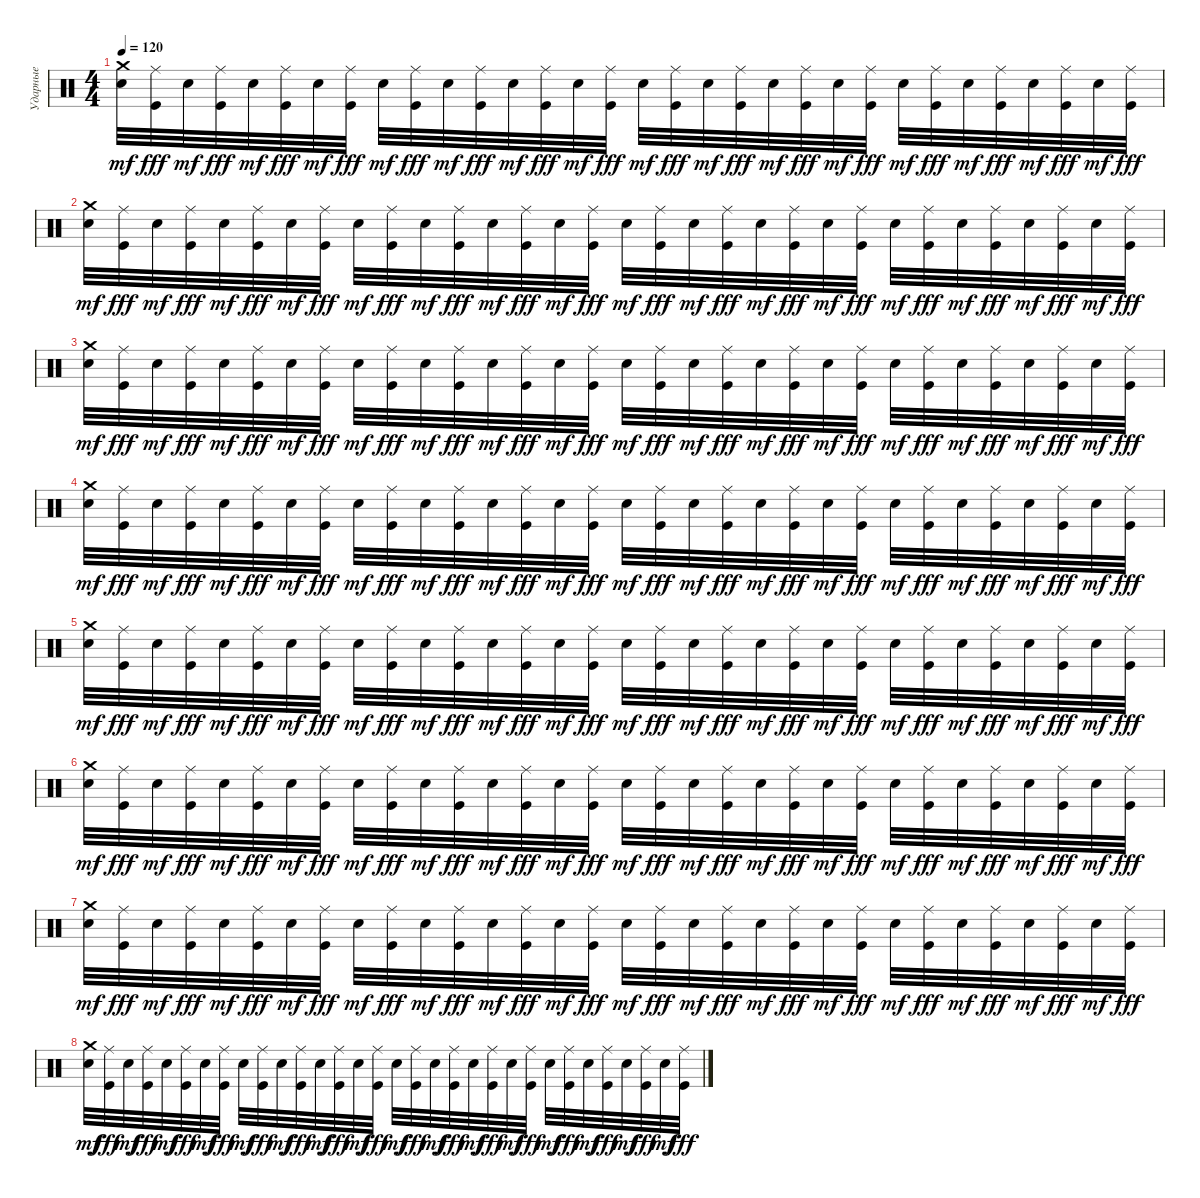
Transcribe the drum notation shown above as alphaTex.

\track ("Ударные" "Ударные") {instrument percussion}
\staff {score}
\articulation defaults
\ts (4 4)
\tempo 120
\clef neutral
\ks c
("Electric Snare (hit)" "Crash medium (hit)").32{dy mf} ("Ride (middle)" "Kick (hit)").32{dy fff} "Electric Snare (hit)".32{dy mf} ("Ride (middle)" "Kick (hit)").32{dy fff} "Electric Snare (hit)".32{dy mf} ("Ride (middle)" "Kick (hit)").32{dy fff} "Electric Snare (hit)".32{dy mf} ("Ride (middle)" "Kick (hit)").32{dy fff} "Electric Snare (hit)".32{dy mf} ("Ride (middle)" "Kick (hit)").32{dy fff} "Electric Snare (hit)".32{dy mf} ("Ride (middle)" "Kick (hit)").32{dy fff} "Electric Snare (hit)".32{dy mf} ("Ride (middle)" "Kick (hit)").32{dy fff} "Electric Snare (hit)".32{dy mf} ("Ride (middle)" "Kick (hit)").32{dy fff} "Electric Snare (hit)".32{dy mf} ("Ride (middle)" "Kick (hit)").32{dy fff} "Electric Snare (hit)".32{dy mf} ("Ride (middle)" "Kick (hit)").32{dy fff} "Electric Snare (hit)".32{dy mf} ("Ride (middle)" "Kick (hit)").32{dy fff} "Electric Snare (hit)".32{dy mf} ("Ride (middle)" "Kick (hit)").32{dy fff} "Electric Snare (hit)".32{dy mf} ("Ride (middle)" "Kick (hit)").32{dy fff} "Electric Snare (hit)".32{dy mf} ("Ride (middle)" "Kick (hit)").32{dy fff} "Electric Snare (hit)".32{dy mf} ("Ride (middle)" "Kick (hit)").32{dy fff} "Electric Snare (hit)".32{dy mf} ("Ride (middle)" "Kick (hit)").32{dy fff} |
("Electric Snare (hit)" "Crash medium (hit)").32{dy mf} ("Ride (middle)" "Kick (hit)").32{dy fff} "Electric Snare (hit)".32{dy mf} ("Ride (middle)" "Kick (hit)").32{dy fff} "Electric Snare (hit)".32{dy mf} ("Ride (middle)" "Kick (hit)").32{dy fff} "Electric Snare (hit)".32{dy mf} ("Ride (middle)" "Kick (hit)").32{dy fff} "Electric Snare (hit)".32{dy mf} ("Ride (middle)" "Kick (hit)").32{dy fff} "Electric Snare (hit)".32{dy mf} ("Ride (middle)" "Kick (hit)").32{dy fff} "Electric Snare (hit)".32{dy mf} ("Ride (middle)" "Kick (hit)").32{dy fff} "Electric Snare (hit)".32{dy mf} ("Ride (middle)" "Kick (hit)").32{dy fff} "Electric Snare (hit)".32{dy mf} ("Ride (middle)" "Kick (hit)").32{dy fff} "Electric Snare (hit)".32{dy mf} ("Ride (middle)" "Kick (hit)").32{dy fff} "Electric Snare (hit)".32{dy mf} ("Ride (middle)" "Kick (hit)").32{dy fff} "Electric Snare (hit)".32{dy mf} ("Ride (middle)" "Kick (hit)").32{dy fff} "Electric Snare (hit)".32{dy mf} ("Ride (middle)" "Kick (hit)").32{dy fff} "Electric Snare (hit)".32{dy mf} ("Ride (middle)" "Kick (hit)").32{dy fff} "Electric Snare (hit)".32{dy mf} ("Ride (middle)" "Kick (hit)").32{dy fff} "Electric Snare (hit)".32{dy mf} ("Ride (middle)" "Kick (hit)").32{dy fff} |
("Electric Snare (hit)" "Crash medium (hit)").32{dy mf} ("Ride (middle)" "Kick (hit)").32{dy fff} "Electric Snare (hit)".32{dy mf} ("Ride (middle)" "Kick (hit)").32{dy fff} "Electric Snare (hit)".32{dy mf} ("Ride (middle)" "Kick (hit)").32{dy fff} "Electric Snare (hit)".32{dy mf} ("Ride (middle)" "Kick (hit)").32{dy fff} "Electric Snare (hit)".32{dy mf} ("Ride (middle)" "Kick (hit)").32{dy fff} "Electric Snare (hit)".32{dy mf} ("Ride (middle)" "Kick (hit)").32{dy fff} "Electric Snare (hit)".32{dy mf} ("Ride (middle)" "Kick (hit)").32{dy fff} "Electric Snare (hit)".32{dy mf} ("Ride (middle)" "Kick (hit)").32{dy fff} "Electric Snare (hit)".32{dy mf} ("Ride (middle)" "Kick (hit)").32{dy fff} "Electric Snare (hit)".32{dy mf} ("Ride (middle)" "Kick (hit)").32{dy fff} "Electric Snare (hit)".32{dy mf} ("Ride (middle)" "Kick (hit)").32{dy fff} "Electric Snare (hit)".32{dy mf} ("Ride (middle)" "Kick (hit)").32{dy fff} "Electric Snare (hit)".32{dy mf} ("Ride (middle)" "Kick (hit)").32{dy fff} "Electric Snare (hit)".32{dy mf} ("Ride (middle)" "Kick (hit)").32{dy fff} "Electric Snare (hit)".32{dy mf} ("Ride (middle)" "Kick (hit)").32{dy fff} "Electric Snare (hit)".32{dy mf} ("Ride (middle)" "Kick (hit)").32{dy fff} |
("Electric Snare (hit)" "Crash medium (hit)").32{dy mf} ("Ride (middle)" "Kick (hit)").32{dy fff} "Electric Snare (hit)".32{dy mf} ("Ride (middle)" "Kick (hit)").32{dy fff} "Electric Snare (hit)".32{dy mf} ("Ride (middle)" "Kick (hit)").32{dy fff} "Electric Snare (hit)".32{dy mf} ("Ride (middle)" "Kick (hit)").32{dy fff} "Electric Snare (hit)".32{dy mf} ("Ride (middle)" "Kick (hit)").32{dy fff} "Electric Snare (hit)".32{dy mf} ("Ride (middle)" "Kick (hit)").32{dy fff} "Electric Snare (hit)".32{dy mf} ("Ride (middle)" "Kick (hit)").32{dy fff} "Electric Snare (hit)".32{dy mf} ("Ride (middle)" "Kick (hit)").32{dy fff} "Electric Snare (hit)".32{dy mf} ("Ride (middle)" "Kick (hit)").32{dy fff} "Electric Snare (hit)".32{dy mf} ("Ride (middle)" "Kick (hit)").32{dy fff} "Electric Snare (hit)".32{dy mf} ("Ride (middle)" "Kick (hit)").32{dy fff} "Electric Snare (hit)".32{dy mf} ("Ride (middle)" "Kick (hit)").32{dy fff} "Electric Snare (hit)".32{dy mf} ("Ride (middle)" "Kick (hit)").32{dy fff} "Electric Snare (hit)".32{dy mf} ("Ride (middle)" "Kick (hit)").32{dy fff} "Electric Snare (hit)".32{dy mf} ("Ride (middle)" "Kick (hit)").32{dy fff} "Electric Snare (hit)".32{dy mf} ("Ride (middle)" "Kick (hit)").32{dy fff} |
("Electric Snare (hit)" "Crash medium (hit)").32{dy mf} ("Ride (middle)" "Kick (hit)").32{dy fff} "Electric Snare (hit)".32{dy mf} ("Ride (middle)" "Kick (hit)").32{dy fff} "Electric Snare (hit)".32{dy mf} ("Ride (middle)" "Kick (hit)").32{dy fff} "Electric Snare (hit)".32{dy mf} ("Ride (middle)" "Kick (hit)").32{dy fff} "Electric Snare (hit)".32{dy mf} ("Ride (middle)" "Kick (hit)").32{dy fff} "Electric Snare (hit)".32{dy mf} ("Ride (middle)" "Kick (hit)").32{dy fff} "Electric Snare (hit)".32{dy mf} ("Ride (middle)" "Kick (hit)").32{dy fff} "Electric Snare (hit)".32{dy mf} ("Ride (middle)" "Kick (hit)").32{dy fff} "Electric Snare (hit)".32{dy mf} ("Ride (middle)" "Kick (hit)").32{dy fff} "Electric Snare (hit)".32{dy mf} ("Ride (middle)" "Kick (hit)").32{dy fff} "Electric Snare (hit)".32{dy mf} ("Ride (middle)" "Kick (hit)").32{dy fff} "Electric Snare (hit)".32{dy mf} ("Ride (middle)" "Kick (hit)").32{dy fff} "Electric Snare (hit)".32{dy mf} ("Ride (middle)" "Kick (hit)").32{dy fff} "Electric Snare (hit)".32{dy mf} ("Ride (middle)" "Kick (hit)").32{dy fff} "Electric Snare (hit)".32{dy mf} ("Ride (middle)" "Kick (hit)").32{dy fff} "Electric Snare (hit)".32{dy mf} ("Ride (middle)" "Kick (hit)").32{dy fff} |
("Electric Snare (hit)" "Crash medium (hit)").32{dy mf} ("Ride (middle)" "Kick (hit)").32{dy fff} "Electric Snare (hit)".32{dy mf} ("Ride (middle)" "Kick (hit)").32{dy fff} "Electric Snare (hit)".32{dy mf} ("Ride (middle)" "Kick (hit)").32{dy fff} "Electric Snare (hit)".32{dy mf} ("Ride (middle)" "Kick (hit)").32{dy fff} "Electric Snare (hit)".32{dy mf} ("Ride (middle)" "Kick (hit)").32{dy fff} "Electric Snare (hit)".32{dy mf} ("Ride (middle)" "Kick (hit)").32{dy fff} "Electric Snare (hit)".32{dy mf} ("Ride (middle)" "Kick (hit)").32{dy fff} "Electric Snare (hit)".32{dy mf} ("Ride (middle)" "Kick (hit)").32{dy fff} "Electric Snare (hit)".32{dy mf} ("Ride (middle)" "Kick (hit)").32{dy fff} "Electric Snare (hit)".32{dy mf} ("Ride (middle)" "Kick (hit)").32{dy fff} "Electric Snare (hit)".32{dy mf} ("Ride (middle)" "Kick (hit)").32{dy fff} "Electric Snare (hit)".32{dy mf} ("Ride (middle)" "Kick (hit)").32{dy fff} "Electric Snare (hit)".32{dy mf} ("Ride (middle)" "Kick (hit)").32{dy fff} "Electric Snare (hit)".32{dy mf} ("Ride (middle)" "Kick (hit)").32{dy fff} "Electric Snare (hit)".32{dy mf} ("Ride (middle)" "Kick (hit)").32{dy fff} "Electric Snare (hit)".32{dy mf} ("Ride (middle)" "Kick (hit)").32{dy fff} |
("Electric Snare (hit)" "Crash medium (hit)").32{dy mf} ("Ride (middle)" "Kick (hit)").32{dy fff} "Electric Snare (hit)".32{dy mf} ("Ride (middle)" "Kick (hit)").32{dy fff} "Electric Snare (hit)".32{dy mf} ("Ride (middle)" "Kick (hit)").32{dy fff} "Electric Snare (hit)".32{dy mf} ("Ride (middle)" "Kick (hit)").32{dy fff} "Electric Snare (hit)".32{dy mf} ("Ride (middle)" "Kick (hit)").32{dy fff} "Electric Snare (hit)".32{dy mf} ("Ride (middle)" "Kick (hit)").32{dy fff} "Electric Snare (hit)".32{dy mf} ("Ride (middle)" "Kick (hit)").32{dy fff} "Electric Snare (hit)".32{dy mf} ("Ride (middle)" "Kick (hit)").32{dy fff} "Electric Snare (hit)".32{dy mf} ("Ride (middle)" "Kick (hit)").32{dy fff} "Electric Snare (hit)".32{dy mf} ("Ride (middle)" "Kick (hit)").32{dy fff} "Electric Snare (hit)".32{dy mf} ("Ride (middle)" "Kick (hit)").32{dy fff} "Electric Snare (hit)".32{dy mf} ("Ride (middle)" "Kick (hit)").32{dy fff} "Electric Snare (hit)".32{dy mf} ("Ride (middle)" "Kick (hit)").32{dy fff} "Electric Snare (hit)".32{dy mf} ("Ride (middle)" "Kick (hit)").32{dy fff} "Electric Snare (hit)".32{dy mf} ("Ride (middle)" "Kick (hit)").32{dy fff} "Electric Snare (hit)".32{dy mf} ("Ride (middle)" "Kick (hit)").32{dy fff} |
("Electric Snare (hit)" "Crash medium (hit)").32{dy mf} ("Ride (middle)" "Kick (hit)").32{dy fff} "Electric Snare (hit)".32{dy mf} ("Ride (middle)" "Kick (hit)").32{dy fff} "Electric Snare (hit)".32{dy mf} ("Ride (middle)" "Kick (hit)").32{dy fff} "Electric Snare (hit)".32{dy mf} ("Ride (middle)" "Kick (hit)").32{dy fff} "Electric Snare (hit)".32{dy mf} ("Ride (middle)" "Kick (hit)").32{dy fff} "Electric Snare (hit)".32{dy mf} ("Ride (middle)" "Kick (hit)").32{dy fff} "Electric Snare (hit)".32{dy mf} ("Ride (middle)" "Kick (hit)").32{dy fff} "Electric Snare (hit)".32{dy mf} ("Ride (middle)" "Kick (hit)").32{dy fff} "Electric Snare (hit)".32{dy mf} ("Ride (middle)" "Kick (hit)").32{dy fff} "Electric Snare (hit)".32{dy mf} ("Ride (middle)" "Kick (hit)").32{dy fff} "Electric Snare (hit)".32{dy mf} ("Ride (middle)" "Kick (hit)").32{dy fff} "Electric Snare (hit)".32{dy mf} ("Ride (middle)" "Kick (hit)").32{dy fff} "Electric Snare (hit)".32{dy mf} ("Ride (middle)" "Kick (hit)").32{dy fff} "Electric Snare (hit)".32{dy mf} ("Ride (middle)" "Kick (hit)").32{dy fff} "Electric Snare (hit)".32{dy mf} ("Ride (middle)" "Kick (hit)").32{dy fff} "Electric Snare (hit)".32{dy mf} ("Ride (middle)" "Kick (hit)").32{dy fff}
